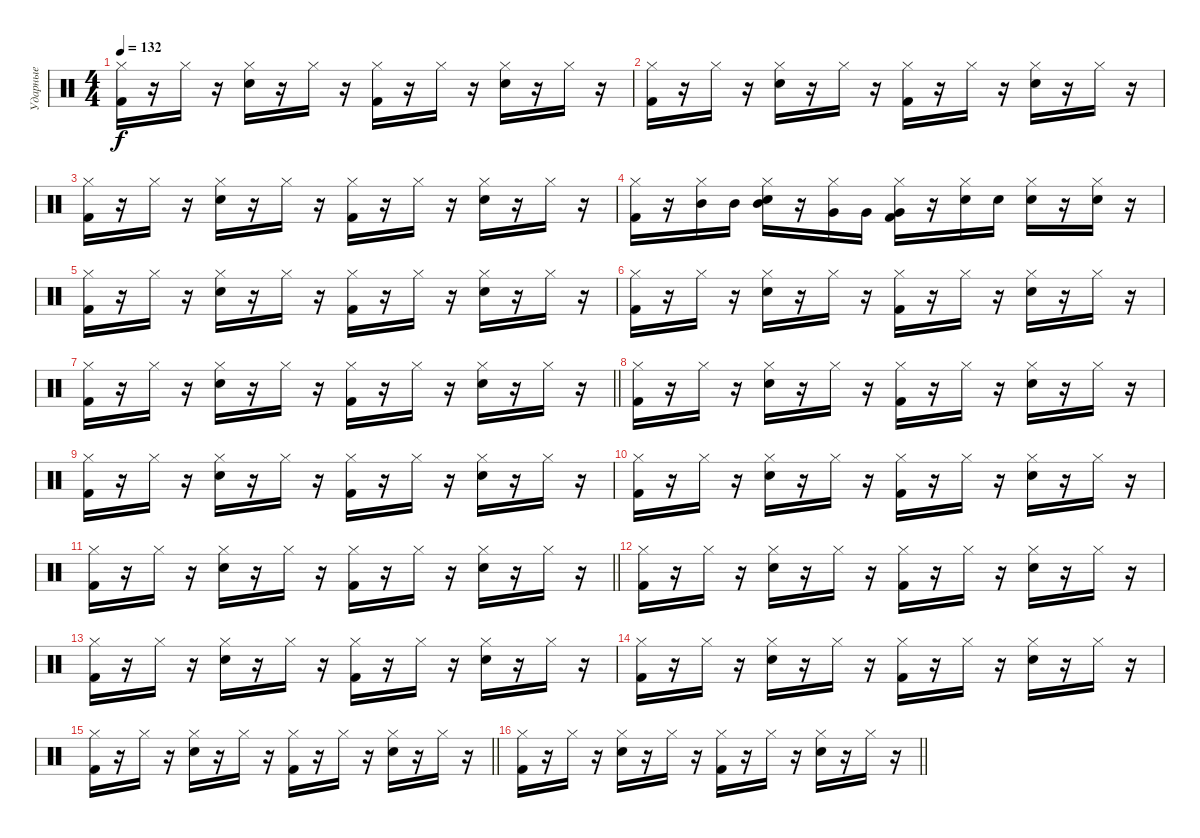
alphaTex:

\track ("Ударные" "Ударные") {instrument percussion}
\staff {score}
\articulation defaults
\ts (4 4)
\tempo 132
\clef neutral
\ks c
("Kick (hit) 2" "Hi-Hat (closed)").16{dy f} r.16 "Hi-Hat (closed)".16 r.16 ("Snare (hit) 2" "Hi-Hat (closed)").16 r.16 "Hi-Hat (closed)".16 r.16 ("Kick (hit) 2" "Hi-Hat (closed)").16 r.16 "Hi-Hat (closed)".16 r.16 ("Snare (hit) 2" "Hi-Hat (closed)").16 r.16 "Hi-Hat (closed)".16 r.16 |
("Kick (hit) 2" "Hi-Hat (closed)").16 r.16 "Hi-Hat (closed)".16 r.16 ("Snare (hit) 2" "Hi-Hat (closed)").16 r.16 "Hi-Hat (closed)".16 r.16 ("Kick (hit) 2" "Hi-Hat (closed)").16 r.16 "Hi-Hat (closed)".16 r.16 ("Snare (hit) 2" "Hi-Hat (closed)").16 r.16 "Hi-Hat (closed)".16 r.16 |
("Kick (hit) 2" "Hi-Hat (closed)").16 r.16 "Hi-Hat (closed)".16 r.16 ("Snare (hit) 2" "Hi-Hat (closed)").16 r.16 "Hi-Hat (closed)".16 r.16 ("Kick (hit) 2" "Hi-Hat (closed)").16 r.16 "Hi-Hat (closed)".16 r.16 ("Snare (hit) 2" "Hi-Hat (closed)").16 r.16 "Hi-Hat (closed)".16 r.16 |
("Kick (hit) 2" "Hi-Hat (closed)").16 r.16 ("Mid Tom (hit)" "Hi-Hat (closed)").16 "Mid Tom (hit)".16 ("Snare (hit) 2" "Mid Tom (hit)" "Hi-Hat (closed)").16 r.16 ("Very Low Tom (hit)" "Hi-Hat (closed)").16 "Very Low Tom (hit)".16 ("Kick (hit) 2" "Very Low Tom (hit)" "Hi-Hat (closed)").16 r.16 ("Snare (hit) 2" "Hi-Hat (closed)").16 "Snare (hit) 2".16 ("Snare (hit) 2" "Hi-Hat (closed)").16 r.16 ("Snare (hit) 2" "Hi-Hat (closed)").16 r.16 |
("Kick (hit) 2" "Hi-Hat (closed)").16 r.16 "Hi-Hat (closed)".16 r.16 ("Snare (hit) 2" "Hi-Hat (closed)").16 r.16 "Hi-Hat (closed)".16 r.16 ("Kick (hit) 2" "Hi-Hat (closed)").16 r.16 "Hi-Hat (closed)".16 r.16 ("Snare (hit) 2" "Hi-Hat (closed)").16 r.16 "Hi-Hat (closed)".16 r.16 |
("Kick (hit) 2" "Hi-Hat (closed)").16 r.16 "Hi-Hat (closed)".16 r.16 ("Snare (hit) 2" "Hi-Hat (closed)").16 r.16 "Hi-Hat (closed)".16 r.16 ("Kick (hit) 2" "Hi-Hat (closed)").16 r.16 "Hi-Hat (closed)".16 r.16 ("Snare (hit) 2" "Hi-Hat (closed)").16 r.16 "Hi-Hat (closed)".16 r.16 |
\barLineRight lightlight
("Kick (hit) 2" "Hi-Hat (closed)").16 r.16 "Hi-Hat (closed)".16 r.16 ("Snare (hit) 2" "Hi-Hat (closed)").16 r.16 "Hi-Hat (closed)".16 r.16 ("Kick (hit) 2" "Hi-Hat (closed)").16 r.16 "Hi-Hat (closed)".16 r.16 ("Snare (hit) 2" "Hi-Hat (closed)").16 r.16 "Hi-Hat (closed)".16 r.16 |
("Kick (hit) 2" "Hi-Hat (closed)").16 r.16 "Hi-Hat (closed)".16 r.16 ("Snare (hit) 2" "Hi-Hat (closed)").16 r.16 "Hi-Hat (closed)".16 r.16 ("Kick (hit) 2" "Hi-Hat (closed)").16 r.16 "Hi-Hat (closed)".16 r.16 ("Snare (hit) 2" "Hi-Hat (closed)").16 r.16 "Hi-Hat (closed)".16 r.16 |
("Kick (hit) 2" "Hi-Hat (closed)").16 r.16 "Hi-Hat (closed)".16 r.16 ("Snare (hit) 2" "Hi-Hat (closed)").16 r.16 "Hi-Hat (closed)".16 r.16 ("Kick (hit) 2" "Hi-Hat (closed)").16 r.16 "Hi-Hat (closed)".16 r.16 ("Snare (hit) 2" "Hi-Hat (closed)").16 r.16 "Hi-Hat (closed)".16 r.16 |
("Kick (hit) 2" "Hi-Hat (closed)").16 r.16 "Hi-Hat (closed)".16 r.16 ("Snare (hit) 2" "Hi-Hat (closed)").16 r.16 "Hi-Hat (closed)".16 r.16 ("Kick (hit) 2" "Hi-Hat (closed)").16 r.16 "Hi-Hat (closed)".16 r.16 ("Snare (hit) 2" "Hi-Hat (closed)").16 r.16 "Hi-Hat (closed)".16 r.16 |
\barLineRight lightlight
("Kick (hit) 2" "Hi-Hat (closed)").16 r.16 "Hi-Hat (closed)".16 r.16 ("Snare (hit) 2" "Hi-Hat (closed)").16 r.16 "Hi-Hat (closed)".16 r.16 ("Kick (hit) 2" "Hi-Hat (closed)").16 r.16 "Hi-Hat (closed)".16 r.16 ("Snare (hit) 2" "Hi-Hat (closed)").16 r.16 "Hi-Hat (closed)".16 r.16 |
("Kick (hit) 2" "Hi-Hat (closed)").16 r.16 "Hi-Hat (closed)".16 r.16 ("Snare (hit) 2" "Hi-Hat (closed)").16 r.16 "Hi-Hat (closed)".16 r.16 ("Kick (hit) 2" "Hi-Hat (closed)").16 r.16 "Hi-Hat (closed)".16 r.16 ("Snare (hit) 2" "Hi-Hat (closed)").16 r.16 "Hi-Hat (closed)".16 r.16 |
("Kick (hit) 2" "Hi-Hat (closed)").16 r.16 "Hi-Hat (closed)".16 r.16 ("Snare (hit) 2" "Hi-Hat (closed)").16 r.16 "Hi-Hat (closed)".16 r.16 ("Kick (hit) 2" "Hi-Hat (closed)").16 r.16 "Hi-Hat (closed)".16 r.16 ("Snare (hit) 2" "Hi-Hat (closed)").16 r.16 "Hi-Hat (closed)".16 r.16 |
("Kick (hit) 2" "Hi-Hat (closed)").16 r.16 "Hi-Hat (closed)".16 r.16 ("Snare (hit) 2" "Hi-Hat (closed)").16 r.16 "Hi-Hat (closed)".16 r.16 ("Kick (hit) 2" "Hi-Hat (closed)").16 r.16 "Hi-Hat (closed)".16 r.16 ("Snare (hit) 2" "Hi-Hat (closed)").16 r.16 "Hi-Hat (closed)".16 r.16 |
\barLineRight lightlight
("Kick (hit) 2" "Hi-Hat (closed)").16 r.16 "Hi-Hat (closed)".16 r.16 ("Snare (hit) 2" "Hi-Hat (closed)").16 r.16 "Hi-Hat (closed)".16 r.16 ("Kick (hit) 2" "Hi-Hat (closed)").16 r.16 "Hi-Hat (closed)".16 r.16 ("Snare (hit) 2" "Hi-Hat (closed)").16 r.16 "Hi-Hat (closed)".16 r.16 |
\barLineRight lightlight
("Kick (hit) 2" "Hi-Hat (closed)").16 r.16 "Hi-Hat (closed)".16 r.16 ("Snare (hit) 2" "Hi-Hat (closed)").16 r.16 "Hi-Hat (closed)".16 r.16 ("Kick (hit) 2" "Hi-Hat (closed)").16 r.16 "Hi-Hat (closed)".16 r.16 ("Snare (hit) 2" "Hi-Hat (closed)").16 r.16 "Hi-Hat (closed)".16 r.16
